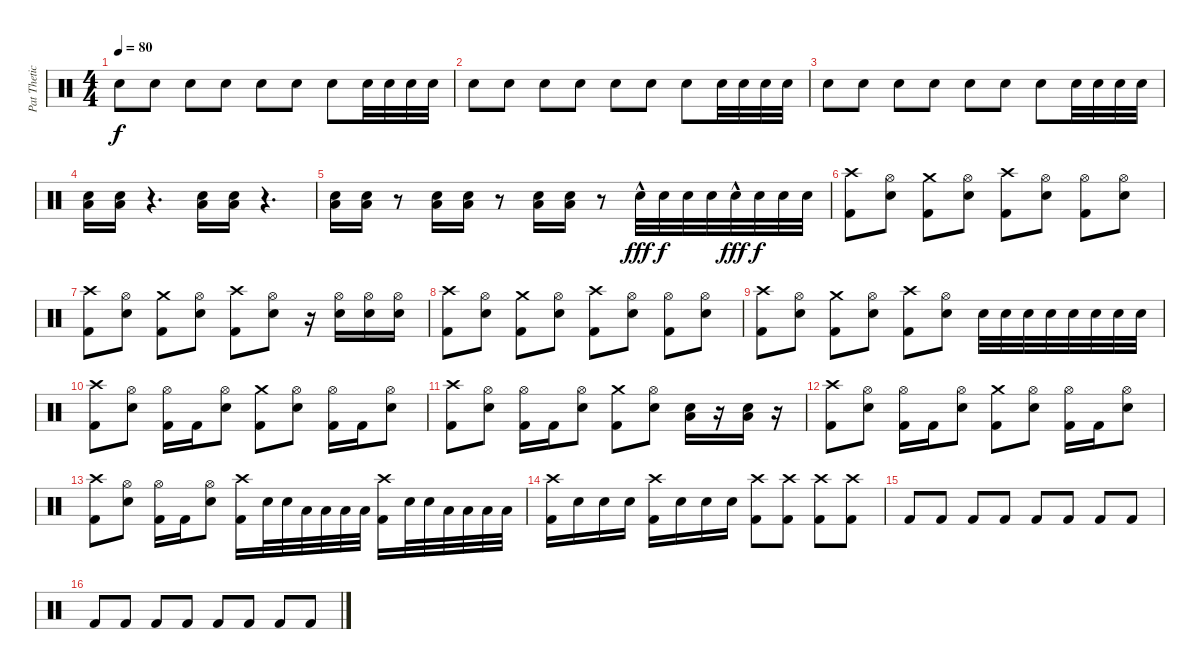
\track ("Pat Thetic" "Pat Thetic") {instrument percussion}
\staff {score}
\articulation defaults
\ts (4 4)
\tempo 80
\clef neutral
\ks c "Electric Snare (hit)".8{dy f} "Electric Snare (hit)".8 "Electric Snare (hit)".8 "Electric Snare (hit)".8 "Electric Snare (hit)".8 "Electric Snare (hit)".8 "Electric Snare (hit)".8 "Electric Snare (hit)".32 "Electric Snare (hit)".32 "Electric Snare (hit)".32 "Electric Snare (hit)".32
|
"Electric Snare (hit)".8 "Electric Snare (hit)".8 "Electric Snare (hit)".8 "Electric Snare (hit)".8 "Electric Snare (hit)".8 "Electric Snare (hit)".8 "Electric Snare (hit)".8 "Electric Snare (hit)".32 "Electric Snare (hit)".32 "Electric Snare (hit)".32 "Electric Snare (hit)".32 |
"Electric Snare (hit)".8 "Electric Snare (hit)".8 "Electric Snare (hit)".8 "Electric Snare (hit)".8 "Electric Snare (hit)".8 "Electric Snare (hit)".8 "Electric Snare (hit)".8 "Electric Snare (hit)".32 "Electric Snare (hit)".32 "Electric Snare (hit)".32 "Electric Snare (hit)".32 |
("Electric Snare (hit)" "Low Floor Tom (hit)").16 ("Electric Snare (hit)" "Low Floor Tom (hit)").16 r.4{d} ("Electric Snare (hit)" "Low Floor Tom (hit)").16 ("Electric Snare (hit)" "Low Floor Tom (hit)").16 r.4{d} |
("Electric Snare (hit)" "Low Floor Tom (hit)").16 ("Electric Snare (hit)" "Low Floor Tom (hit)").16 r.8 ("Electric Snare (hit)" "Low Floor Tom (hit)").16 ("Electric Snare (hit)" "Low Floor Tom (hit)").16 r.8 ("Electric Snare (hit)" "Low Floor Tom (hit)").16 ("Electric Snare (hit)" "Low Floor Tom (hit)").16 r.8 "Electric Snare (hit)"{hac}.32{dy fff} "Electric Snare (hit)".32{dy f} "Electric Snare (hit)".32 "Electric Snare (hit)".32 "Electric Snare (hit)"{hac}.32{dy fff} "Electric Snare (hit)".32{dy f} "Electric Snare (hit)".32 "Electric Snare (hit)".32 |
("Crash high (hit)" "Kick (hit) 2").8 ("Hi-Hat (open)" "Electric Snare (hit)").8 ("Crash medium (hit)" "Kick (hit) 2").8 ("Hi-Hat (open)" "Electric Snare (hit)").8 ("Crash high (hit)" "Kick (hit) 2").8 ("Hi-Hat (open)" "Electric Snare (hit)").8 ("Hi-Hat (open)" "Kick (hit) 2").8 ("Hi-Hat (open)" "Electric Snare (hit)").8 |
("Crash high (hit)" "Kick (hit) 2").8 ("Hi-Hat (open)" "Electric Snare (hit)").8 ("Crash medium (hit)" "Kick (hit) 2").8 ("Hi-Hat (open)" "Electric Snare (hit)").8 ("Crash high (hit)" "Kick (hit) 2").8 ("Hi-Hat (open)" "Electric Snare (hit)").8 r.16 ("Hi-Hat (open)" "Electric Snare (hit)").16 ("Hi-Hat (open)" "Electric Snare (hit)").16 ("Hi-Hat (open)" "Electric Snare (hit)").16 |
("Crash high (hit)" "Kick (hit) 2").8 ("Hi-Hat (open)" "Electric Snare (hit)").8 ("Crash medium (hit)" "Kick (hit) 2").8 ("Hi-Hat (open)" "Electric Snare (hit)").8 ("Crash high (hit)" "Kick (hit) 2").8 ("Hi-Hat (open)" "Electric Snare (hit)").8 ("Hi-Hat (open)" "Kick (hit) 2").8 ("Hi-Hat (open)" "Electric Snare (hit)").8 |
("Crash high (hit)" "Kick (hit) 2").8 ("Hi-Hat (open)" "Electric Snare (hit)").8 ("Crash medium (hit)" "Kick (hit) 2").8 ("Hi-Hat (open)" "Electric Snare (hit)").8 ("Crash high (hit)" "Kick (hit) 2").8 ("Hi-Hat (open)" "Electric Snare (hit)").8 "Electric Snare (hit)".32 "Electric Snare (hit)".32 "Electric Snare (hit)".32 "Electric Snare (hit)".32 "Electric Snare (hit)".32 "Electric Snare (hit)".32 "Electric Snare (hit)".32 "Electric Snare (hit)".32 |
("Crash high (hit)" "Kick (hit) 2").8 ("Hi-Hat (open)" "Electric Snare (hit)").8 ("Hi-Hat (open)" "Kick (hit) 2").16 "Kick (hit) 2".16 ("Hi-Hat (open)" "Electric Snare (hit)").8 ("Crash medium (hit)" "Kick (hit) 2").8 ("Hi-Hat (open)" "Electric Snare (hit)").8 ("Hi-Hat (open)" "Kick (hit) 2").16 "Kick (hit) 2".16 ("Hi-Hat (open)" "Electric Snare (hit)").8 |
("Crash high (hit)" "Kick (hit) 2").8 ("Hi-Hat (open)" "Electric Snare (hit)").8 ("Hi-Hat (open)" "Kick (hit) 2").16 "Kick (hit) 2".16 ("Hi-Hat (open)" "Electric Snare (hit)").8 ("Crash medium (hit)" "Kick (hit) 2").8 ("Hi-Hat (open)" "Electric Snare (hit)").8 ("Electric Snare (hit)" "Low Floor Tom (hit)").16 r.16 ("Electric Snare (hit)" "Low Floor Tom (hit)").16 r.16 |
("Crash high (hit)" "Kick (hit) 2").8 ("Hi-Hat (open)" "Electric Snare (hit)").8 ("Hi-Hat (open)" "Kick (hit) 2").16 "Kick (hit) 2".16 ("Hi-Hat (open)" "Electric Snare (hit)").8 ("Crash medium (hit)" "Kick (hit) 2").8 ("Hi-Hat (open)" "Electric Snare (hit)").8 ("Hi-Hat (open)" "Kick (hit) 2").16 "Kick (hit) 2".16 ("Hi-Hat (open)" "Electric Snare (hit)").8 |
("Crash high (hit)" "Kick (hit) 2").8 ("Hi-Hat (open)" "Electric Snare (hit)").8 ("Hi-Hat (open)" "Kick (hit) 2").16 "Kick (hit) 2".16 ("Hi-Hat (open)" "Electric Snare (hit)").8 ("Crash high (hit)" "Kick (hit) 2").16 "Electric Snare (hit)".32 "Electric Snare (hit)".32 "Low Tom (hit)".32 "Low Tom (hit)".32 "Low Floor Tom (hit)".32 "Low Floor Tom (hit)".32 ("Crash high (hit)" "Kick (hit) 2").16 "Electric Snare (hit)".32 "Electric Snare (hit)".32 "Low Tom (hit)".32 "Low Tom (hit)".32 "Low Floor Tom (hit)".32 "Low Floor Tom (hit)".32 |
("Crash high (hit)" "Kick (hit) 2").16 "Electric Snare (hit)".16 "Electric Snare (hit)".16 "Electric Snare (hit)".16 ("Crash high (hit)" "Kick (hit) 2").16 "Electric Snare (hit)".16 "Electric Snare (hit)".16 "Electric Snare (hit)".16 ("Crash high (hit)" "Kick (hit) 2").8 ("Crash high (hit)" "Kick (hit) 2").8 ("Crash high (hit)" "Kick (hit) 2").8 ("Crash high (hit)" "Kick (hit) 2").8 |
"Kick (hit) 2".8 "Kick (hit) 2".8 "Kick (hit) 2".8 "Kick (hit) 2".8 "Kick (hit) 2".8 "Kick (hit) 2".8 "Kick (hit) 2".8 "Kick (hit) 2".8 |
"Kick (hit) 2".8 "Kick (hit) 2".8 "Kick (hit) 2".8 "Kick (hit) 2".8 "Kick (hit) 2".8 "Kick (hit) 2".8 "Kick (hit) 2".8 "Kick (hit) 2".8
